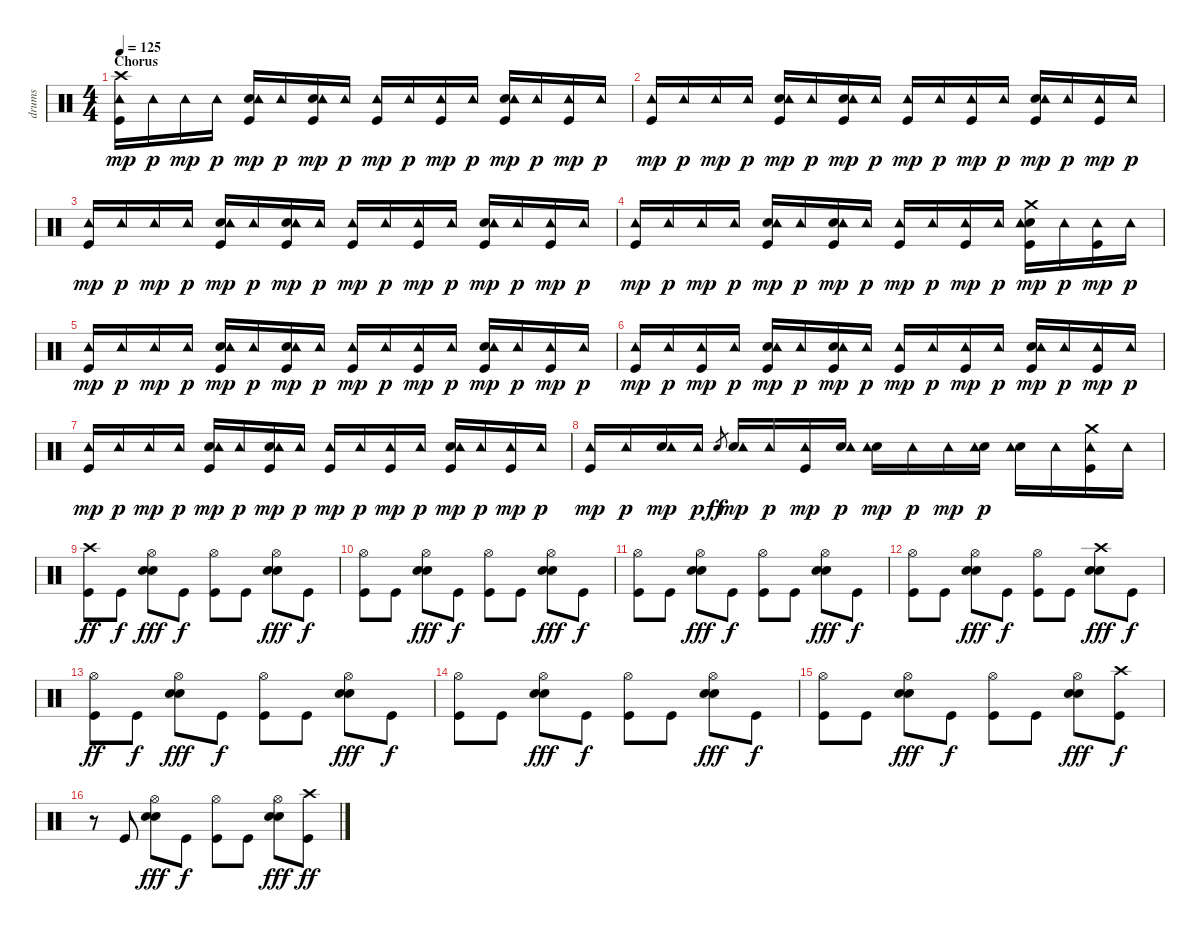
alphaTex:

\track ("drums" "drums") {instrument percussion}
\staff {score}
\articulation defaults
\ts (4 4)
\section ("" "Chorus")
\tempo 125
\clef neutral
\ks c
("Crash high (hit)" "Kick (hit)" "Tambourine (hit)").16{dy mp} "Tambourine (hit)".16{dy p} "Tambourine (hit)".16{dy mp} "Tambourine (hit)".16{dy p} ("Hand Clap (hit)" "Kick (hit)" "Tambourine (hit)").16{dy mp} "Tambourine (hit)".16{dy p} ("Hand Clap (hit)" "Kick (hit)" "Tambourine (hit)").16{dy mp} "Tambourine (hit)".16{dy p} ("Kick (hit)" "Tambourine (hit)").16{dy mp} "Tambourine (hit)".16{dy p} ("Kick (hit)" "Tambourine (hit)").16{dy mp} "Tambourine (hit)".16{dy p} ("Hand Clap (hit)" "Kick (hit)" "Tambourine (hit)").16{dy mp} "Tambourine (hit)".16{dy p} ("Kick (hit)" "Tambourine (hit)").16{dy mp} "Tambourine (hit)".16{dy p} |
("Kick (hit)" "Tambourine (hit)").16{dy mp} "Tambourine (hit)".16{dy p} "Tambourine (hit)".16{dy mp} "Tambourine (hit)".16{dy p} ("Hand Clap (hit)" "Kick (hit)" "Tambourine (hit)").16{dy mp} "Tambourine (hit)".16{dy p} ("Hand Clap (hit)" "Kick (hit)" "Tambourine (hit)").16{dy mp} "Tambourine (hit)".16{dy p} ("Kick (hit)" "Tambourine (hit)").16{dy mp} "Tambourine (hit)".16{dy p} ("Kick (hit)" "Tambourine (hit)").16{dy mp} "Tambourine (hit)".16{dy p} ("Hand Clap (hit)" "Kick (hit)" "Tambourine (hit)").16{dy mp} "Tambourine (hit)".16{dy p} ("Kick (hit)" "Tambourine (hit)").16{dy mp} "Tambourine (hit)".16{dy p} |
("Kick (hit)" "Tambourine (hit)").16{dy mp} "Tambourine (hit)".16{dy p} "Tambourine (hit)".16{dy mp} "Tambourine (hit)".16{dy p} ("Hand Clap (hit)" "Kick (hit)" "Tambourine (hit)").16{dy mp} "Tambourine (hit)".16{dy p} ("Hand Clap (hit)" "Kick (hit)" "Tambourine (hit)").16{dy mp} "Tambourine (hit)".16{dy p} ("Kick (hit)" "Tambourine (hit)").16{dy mp} "Tambourine (hit)".16{dy p} ("Kick (hit)" "Tambourine (hit)").16{dy mp} "Tambourine (hit)".16{dy p} ("Hand Clap (hit)" "Kick (hit)" "Tambourine (hit)").16{dy mp} "Tambourine (hit)".16{dy p} ("Kick (hit)" "Tambourine (hit)").16{dy mp} "Tambourine (hit)".16{dy p} |
("Kick (hit)" "Tambourine (hit)").16{dy mp} "Tambourine (hit)".16{dy p} "Tambourine (hit)".16{dy mp} "Tambourine (hit)".16{dy p} ("Hand Clap (hit)" "Kick (hit)" "Tambourine (hit)").16{dy mp} "Tambourine (hit)".16{dy p} ("Hand Clap (hit)" "Kick (hit)" "Tambourine (hit)").16{dy mp} "Tambourine (hit)".16{dy p} ("Kick (hit)" "Tambourine (hit)").16{dy mp} "Tambourine (hit)".16{dy p} ("Kick (hit)" "Tambourine (hit)").16{dy mp} "Tambourine (hit)".16{dy p} ("Hand Clap (hit)" "Kick (hit)" "Crash medium (hit)" "Tambourine (hit)").16{dy mp} "Tambourine (hit)".16{dy p} ("Kick (hit)" "Tambourine (hit)").16{dy mp} "Tambourine (hit)".16{dy p} |
("Kick (hit)" "Tambourine (hit)").16{dy mp} "Tambourine (hit)".16{dy p} "Tambourine (hit)".16{dy mp} "Tambourine (hit)".16{dy p} ("Hand Clap (hit)" "Kick (hit)" "Tambourine (hit)").16{dy mp} "Tambourine (hit)".16{dy p} ("Hand Clap (hit)" "Kick (hit)" "Tambourine (hit)").16{dy mp} "Tambourine (hit)".16{dy p} ("Kick (hit)" "Tambourine (hit)").16{dy mp} "Tambourine (hit)".16{dy p} ("Kick (hit)" "Tambourine (hit)").16{dy mp} "Tambourine (hit)".16{dy p} ("Hand Clap (hit)" "Kick (hit)" "Tambourine (hit)").16{dy mp} "Tambourine (hit)".16{dy p} ("Kick (hit)" "Tambourine (hit)").16{dy mp} "Tambourine (hit)".16{dy p} |
("Kick (hit)" "Tambourine (hit)").16{dy mp} "Tambourine (hit)".16{dy p} ("Kick (hit)" "Tambourine (hit)").16{dy mp} "Tambourine (hit)".16{dy p} ("Hand Clap (hit)" "Kick (hit)" "Tambourine (hit)").16{dy mp} "Tambourine (hit)".16{dy p} ("Hand Clap (hit)" "Kick (hit)" "Tambourine (hit)").16{dy mp} "Tambourine (hit)".16{dy p} ("Kick (hit)" "Tambourine (hit)").16{dy mp} "Tambourine (hit)".16{dy p} ("Kick (hit)" "Tambourine (hit)").16{dy mp} "Tambourine (hit)".16{dy p} ("Hand Clap (hit)" "Kick (hit)" "Tambourine (hit)").16{dy mp} "Tambourine (hit)".16{dy p} ("Kick (hit)" "Tambourine (hit)").16{dy mp} "Tambourine (hit)".16{dy p} |
("Kick (hit)" "Tambourine (hit)").16{dy mp} "Tambourine (hit)".16{dy p} "Tambourine (hit)".16{dy mp} "Tambourine (hit)".16{dy p} ("Hand Clap (hit)" "Kick (hit)" "Tambourine (hit)").16{dy mp} "Tambourine (hit)".16{dy p} ("Hand Clap (hit)" "Kick (hit)" "Tambourine (hit)").16{dy mp} "Tambourine (hit)".16{dy p} ("Kick (hit)" "Tambourine (hit)").16{dy mp} "Tambourine (hit)".16{dy p} ("Kick (hit)" "Tambourine (hit)").16{dy mp} "Tambourine (hit)".16{dy p} ("Hand Clap (hit)" "Kick (hit)" "Tambourine (hit)").16{dy mp} "Tambourine (hit)".16{dy p} ("Kick (hit)" "Tambourine (hit)").16{dy mp} "Tambourine (hit)".16{dy p} |
("Kick (hit)" "Tambourine (hit)").16{dy mp} "Tambourine (hit)".16{dy p} ("Electric Snare (hit)" "Tambourine (hit)").16{dy mp} "Tambourine (hit)".16{dy p} "Electric Snare (hit)".8{gr dy ff} ("Electric Snare (hit)" "Tambourine (hit)").16{dy mp} "Tambourine (hit)".16{dy p} ("Kick (hit)" "Tambourine (hit)").16{dy mp} ("Electric Snare (hit)" "Tambourine (hit)").16{dy p} ("Electric Snare (hit)" "Tambourine (hit)").16{dy mp} "Tambourine (hit)".16{dy p} "Tambourine (hit)".16{dy mp} ("Electric Snare (hit)" "Tambourine (hit)").16{dy p} ("Electric Snare (hit)" "Tambourine (hit)").16 "Tambourine (hit)".16 ("Kick (hit)" "Crash medium (hit)" "Tambourine (hit)").16 "Tambourine (hit)".16 |
("Kick (hit)" "Crash high (hit)").8{dy ff} "Kick (hit)".8{dy f} ("Electric Snare (hit)" "Hand Clap (hit)" "Hi-Hat (open)").8{dy fff} "Kick (hit)".8{dy f} ("Kick (hit)" "Hi-Hat (open)").8 "Kick (hit)".8 ("Electric Snare (hit)" "Hand Clap (hit)" "Hi-Hat (open)").8{dy fff} "Kick (hit)".8{dy f} |
("Kick (hit)" "Hi-Hat (open)").8 "Kick (hit)".8 ("Electric Snare (hit)" "Hand Clap (hit)" "Hi-Hat (open)").8{dy fff} "Kick (hit)".8{dy f} ("Kick (hit)" "Hi-Hat (open)").8 "Kick (hit)".8 ("Electric Snare (hit)" "Hand Clap (hit)" "Hi-Hat (open)").8{dy fff} "Kick (hit)".8{dy f} |
("Kick (hit)" "Hi-Hat (open)").8 "Kick (hit)".8 ("Electric Snare (hit)" "Hand Clap (hit)" "Hi-Hat (open)").8{dy fff} "Kick (hit)".8{dy f} ("Kick (hit)" "Hi-Hat (open)").8 "Kick (hit)".8 ("Electric Snare (hit)" "Hand Clap (hit)" "Hi-Hat (open)").8{dy fff} "Kick (hit)".8{dy f} |
("Kick (hit)" "Hi-Hat (open)").8 "Kick (hit)".8 ("Electric Snare (hit)" "Hand Clap (hit)" "Hi-Hat (open)").8{dy fff} "Kick (hit)".8{dy f} ("Kick (hit)" "Hi-Hat (open)").8 "Kick (hit)".8 ("Electric Snare (hit)" "Hand Clap (hit)" "Crash high (hit)").8{dy fff} "Kick (hit)".8{dy f} |
("Kick (hit)" "Hi-Hat (open)").8{dy ff} "Kick (hit)".8{dy f} ("Electric Snare (hit)" "Hand Clap (hit)" "Hi-Hat (open)").8{dy fff} "Kick (hit)".8{dy f} ("Kick (hit)" "Hi-Hat (open)").8 "Kick (hit)".8 ("Electric Snare (hit)" "Hand Clap (hit)" "Hi-Hat (open)").8{dy fff} "Kick (hit)".8{dy f} |
("Kick (hit)" "Hi-Hat (open)").8 "Kick (hit)".8 ("Electric Snare (hit)" "Hand Clap (hit)" "Hi-Hat (open)").8{dy fff} "Kick (hit)".8{dy f} ("Kick (hit)" "Hi-Hat (open)").8 "Kick (hit)".8 ("Electric Snare (hit)" "Hand Clap (hit)" "Hi-Hat (open)").8{dy fff} "Kick (hit)".8{dy f} |
("Kick (hit)" "Hi-Hat (open)").8 "Kick (hit)".8 ("Electric Snare (hit)" "Hand Clap (hit)" "Hi-Hat (open)").8{dy fff} "Kick (hit)".8{dy f} ("Kick (hit)" "Hi-Hat (open)").8 "Kick (hit)".8 ("Electric Snare (hit)" "Hand Clap (hit)" "Hi-Hat (open)").8{dy fff} ("Kick (hit)" "Crash high (hit)").8{dy f} |
r.8 "Kick (hit)".8 ("Electric Snare (hit)" "Hand Clap (hit)" "Hi-Hat (open)").8{dy fff} "Kick (hit)".8{dy f} ("Kick (hit)" "Hi-Hat (open)").8 "Kick (hit)".8 ("Electric Snare (hit)" "Hand Clap (hit)" "Hi-Hat (open)").8{dy fff} ("Kick (hit)" "Crash high (hit)").8{dy ff}
